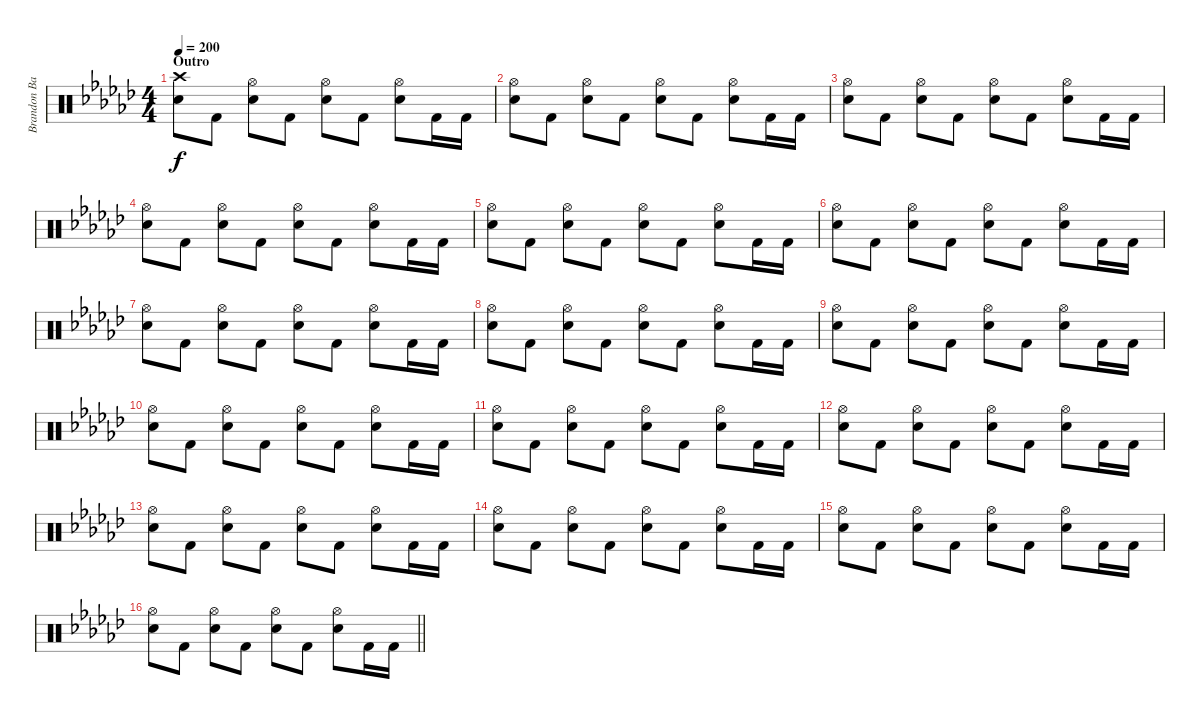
\track ("Brandon Barnes - Drums" "Brandon Ba") {instrument percussion}
\staff {score}
\articulation defaults
\ts (4 4)
\section ("" "Outro")
\tempo 200
\clef neutral
\ks ebminor
("Crash high (hit)" "Snare (hit) 2").8{dy f} "Kick (hit) 2".8 ("Snare (hit) 2" "Hi-Hat (open)").8 "Kick (hit) 2".8 ("Snare (hit) 2" "Hi-Hat (open)").8 "Kick (hit) 2".8 ("Snare (hit) 2" "Hi-Hat (open)").8 "Kick (hit) 2".16 "Kick (hit) 2".16 |
("Snare (hit) 2" "Hi-Hat (open)").8 "Kick (hit) 2".8 ("Snare (hit) 2" "Hi-Hat (open)").8 "Kick (hit) 2".8 ("Snare (hit) 2" "Hi-Hat (open)").8 "Kick (hit) 2".8 ("Snare (hit) 2" "Hi-Hat (open)").8 "Kick (hit) 2".16 "Kick (hit) 2".16 |
("Snare (hit) 2" "Hi-Hat (open)").8 "Kick (hit) 2".8 ("Snare (hit) 2" "Hi-Hat (open)").8 "Kick (hit) 2".8 ("Snare (hit) 2" "Hi-Hat (open)").8 "Kick (hit) 2".8 ("Snare (hit) 2" "Hi-Hat (open)").8 "Kick (hit) 2".16 "Kick (hit) 2".16 |
("Snare (hit) 2" "Hi-Hat (open)").8 "Kick (hit) 2".8 ("Snare (hit) 2" "Hi-Hat (open)").8 "Kick (hit) 2".8 ("Snare (hit) 2" "Hi-Hat (open)").8 "Kick (hit) 2".8 ("Snare (hit) 2" "Hi-Hat (open)").8 "Kick (hit) 2".16 "Kick (hit) 2".16 |
("Snare (hit) 2" "Hi-Hat (open)").8 "Kick (hit) 2".8 ("Snare (hit) 2" "Hi-Hat (open)").8 "Kick (hit) 2".8 ("Snare (hit) 2" "Hi-Hat (open)").8 "Kick (hit) 2".8 ("Snare (hit) 2" "Hi-Hat (open)").8 "Kick (hit) 2".16 "Kick (hit) 2".16 |
("Snare (hit) 2" "Hi-Hat (open)").8 "Kick (hit) 2".8 ("Snare (hit) 2" "Hi-Hat (open)").8 "Kick (hit) 2".8 ("Snare (hit) 2" "Hi-Hat (open)").8 "Kick (hit) 2".8 ("Snare (hit) 2" "Hi-Hat (open)").8 "Kick (hit) 2".16 "Kick (hit) 2".16 |
("Snare (hit) 2" "Hi-Hat (open)").8 "Kick (hit) 2".8 ("Snare (hit) 2" "Hi-Hat (open)").8 "Kick (hit) 2".8 ("Snare (hit) 2" "Hi-Hat (open)").8 "Kick (hit) 2".8 ("Snare (hit) 2" "Hi-Hat (open)").8 "Kick (hit) 2".16 "Kick (hit) 2".16 |
("Snare (hit) 2" "Hi-Hat (open)").8 "Kick (hit) 2".8 ("Snare (hit) 2" "Hi-Hat (open)").8 "Kick (hit) 2".8 ("Snare (hit) 2" "Hi-Hat (open)").8 "Kick (hit) 2".8 ("Snare (hit) 2" "Hi-Hat (open)").8 "Kick (hit) 2".16 "Kick (hit) 2".16 |
("Snare (hit) 2" "Hi-Hat (open)").8 "Kick (hit) 2".8 ("Snare (hit) 2" "Hi-Hat (open)").8 "Kick (hit) 2".8 ("Snare (hit) 2" "Hi-Hat (open)").8 "Kick (hit) 2".8 ("Snare (hit) 2" "Hi-Hat (open)").8 "Kick (hit) 2".16 "Kick (hit) 2".16 |
("Snare (hit) 2" "Hi-Hat (open)").8 "Kick (hit) 2".8 ("Snare (hit) 2" "Hi-Hat (open)").8 "Kick (hit) 2".8 ("Snare (hit) 2" "Hi-Hat (open)").8 "Kick (hit) 2".8 ("Snare (hit) 2" "Hi-Hat (open)").8 "Kick (hit) 2".16 "Kick (hit) 2".16 |
("Snare (hit) 2" "Hi-Hat (open)").8 "Kick (hit) 2".8 ("Snare (hit) 2" "Hi-Hat (open)").8 "Kick (hit) 2".8 ("Snare (hit) 2" "Hi-Hat (open)").8 "Kick (hit) 2".8 ("Snare (hit) 2" "Hi-Hat (open)").8 "Kick (hit) 2".16 "Kick (hit) 2".16 |
("Snare (hit) 2" "Hi-Hat (open)").8 "Kick (hit) 2".8 ("Snare (hit) 2" "Hi-Hat (open)").8 "Kick (hit) 2".8 ("Snare (hit) 2" "Hi-Hat (open)").8 "Kick (hit) 2".8 ("Snare (hit) 2" "Hi-Hat (open)").8 "Kick (hit) 2".16 "Kick (hit) 2".16 |
("Snare (hit) 2" "Hi-Hat (open)").8 "Kick (hit) 2".8 ("Snare (hit) 2" "Hi-Hat (open)").8 "Kick (hit) 2".8 ("Snare (hit) 2" "Hi-Hat (open)").8 "Kick (hit) 2".8 ("Snare (hit) 2" "Hi-Hat (open)").8 "Kick (hit) 2".16 "Kick (hit) 2".16 |
("Snare (hit) 2" "Hi-Hat (open)").8 "Kick (hit) 2".8 ("Snare (hit) 2" "Hi-Hat (open)").8 "Kick (hit) 2".8 ("Snare (hit) 2" "Hi-Hat (open)").8 "Kick (hit) 2".8 ("Snare (hit) 2" "Hi-Hat (open)").8 "Kick (hit) 2".16 "Kick (hit) 2".16 |
("Snare (hit) 2" "Hi-Hat (open)").8 "Kick (hit) 2".8 ("Snare (hit) 2" "Hi-Hat (open)").8 "Kick (hit) 2".8 ("Snare (hit) 2" "Hi-Hat (open)").8 "Kick (hit) 2".8 ("Snare (hit) 2" "Hi-Hat (open)").8 "Kick (hit) 2".16 "Kick (hit) 2".16 |
\barLineRight lightlight
("Snare (hit) 2" "Hi-Hat (open)").8 "Kick (hit) 2".8 ("Snare (hit) 2" "Hi-Hat (open)").8 "Kick (hit) 2".8 ("Snare (hit) 2" "Hi-Hat (open)").8 "Kick (hit) 2".8 ("Snare (hit) 2" "Hi-Hat (open)").8 "Kick (hit) 2".16 "Kick (hit) 2".16
